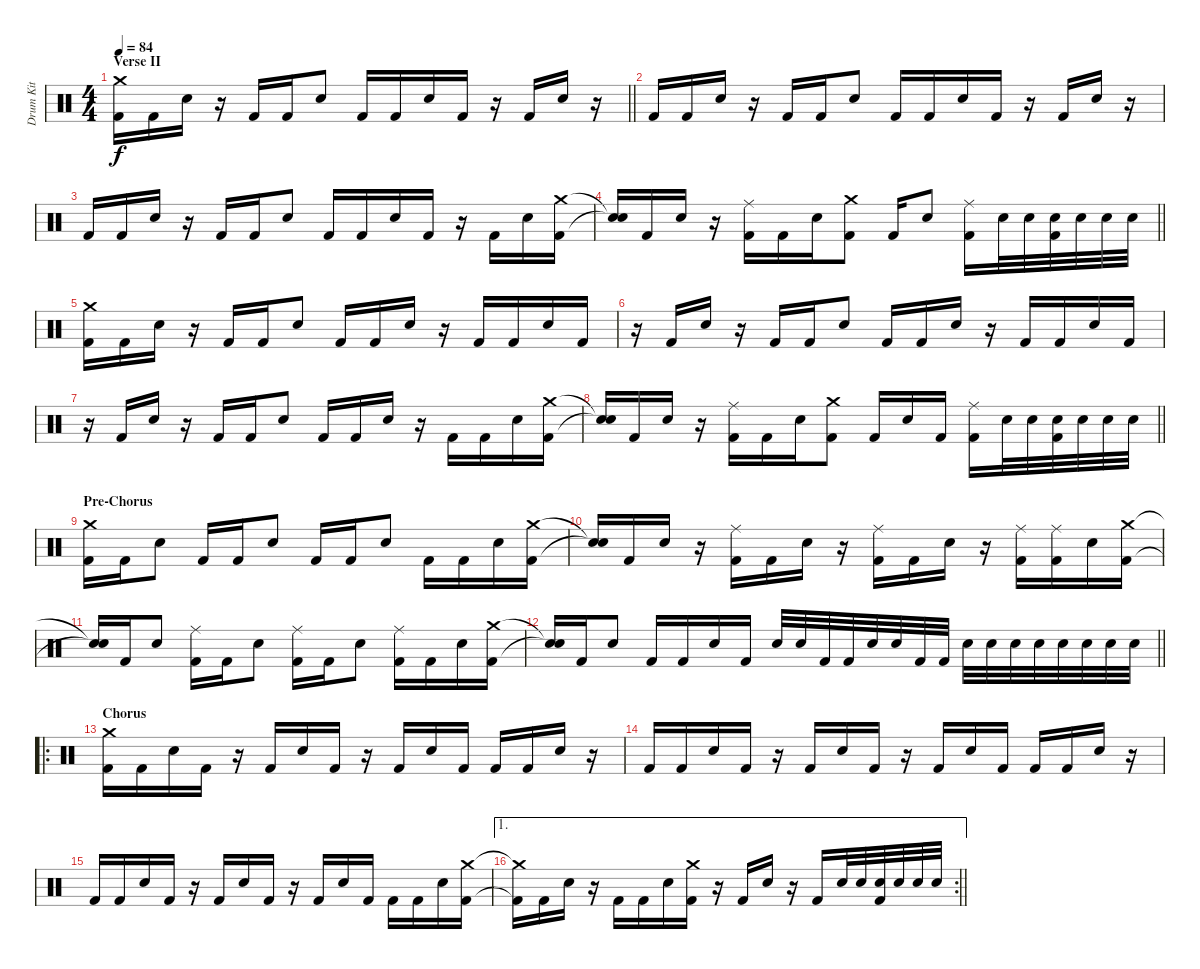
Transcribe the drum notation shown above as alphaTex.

\track ("Drum Kit" "Drum Kit") {instrument percussion}
\staff {score}
\articulation defaults
\ts (4 4)
\section ("" "Verse II")
\tempo 84
\clef neutral
\barLineRight lightlight
\ks c
("Crash medium (hit)" "Kick (hit) 2").16{dy f} "Kick (hit) 2".16 "Electric Snare (hit)".16 r.16 "Kick (hit) 2".16 "Kick (hit) 2".16 "Electric Snare (hit)".8 "Kick (hit) 2".16 "Kick (hit) 2".16 "Electric Snare (hit)".16 "Kick (hit) 2".16 r.16 "Kick (hit) 2".16 "Electric Snare (hit)".16 r.16 |
"Kick (hit) 2".16 "Kick (hit) 2".16 "Electric Snare (hit)".16 r.16 "Kick (hit) 2".16 "Kick (hit) 2".16 "Electric Snare (hit)".8 "Kick (hit) 2".16 "Kick (hit) 2".16 "Electric Snare (hit)".16 "Kick (hit) 2".16 r.16 "Kick (hit) 2".16 "Electric Snare (hit)".16 r.16 |
"Kick (hit) 2".16 "Kick (hit) 2".16 "Electric Snare (hit)".16 r.16 "Kick (hit) 2".16 "Kick (hit) 2".16 "Electric Snare (hit)".8 "Kick (hit) 2".16 "Kick (hit) 2".16 "Electric Snare (hit)".16 "Kick (hit) 2".16 r.16 "Kick (hit) 2".16 "Electric Snare (hit)".16 ("Crash medium (hit)" "Kick (hit) 2").16 |
\barLineRight lightlight
("Snare (hit)"{t} "Snare (hit)"{t}).16 "Kick (hit) 2".16 "Electric Snare (hit)".16 r.16 ("Ride (middle)" "Kick (hit) 2").16 "Kick (hit) 2".16 "Electric Snare (hit)".16 ("Crash medium (hit)" "Kick (hit) 2").8 "Kick (hit) 2".16 "Electric Snare (hit)".8 ("Ride (middle)" "Kick (hit) 2").16 "Electric Snare (hit)".32 "Electric Snare (hit)".32 ("Electric Snare (hit)" "Kick (hit) 2").32 "Electric Snare (hit)".32 "Electric Snare (hit)".32 "Electric Snare (hit)".32 |
("Crash medium (hit)" "Kick (hit) 2").16 "Kick (hit) 2".16 "Electric Snare (hit)".16 r.16 "Kick (hit) 2".16 "Kick (hit) 2".16 "Electric Snare (hit)".8 "Kick (hit) 2".16 "Kick (hit) 2".16 "Electric Snare (hit)".16 r.16 "Kick (hit) 2".16 "Kick (hit) 2".16 "Electric Snare (hit)".16 "Kick (hit) 2".16 |
r.16 "Kick (hit) 2".16 "Electric Snare (hit)".16 r.16 "Kick (hit) 2".16 "Kick (hit) 2".16 "Electric Snare (hit)".8 "Kick (hit) 2".16 "Kick (hit) 2".16 "Electric Snare (hit)".16 r.16 "Kick (hit) 2".16 "Kick (hit) 2".16 "Electric Snare (hit)".16 "Kick (hit) 2".16 |
r.16 "Kick (hit) 2".16 "Electric Snare (hit)".16 r.16 "Kick (hit) 2".16 "Kick (hit) 2".16 "Electric Snare (hit)".8 "Kick (hit) 2".16 "Kick (hit) 2".16 "Electric Snare (hit)".16 r.16 "Kick (hit) 2".16 "Kick (hit) 2".16 "Electric Snare (hit)".16 ("Crash medium (hit)" "Kick (hit) 2").16 |
\barLineRight lightlight
("Snare (hit)"{t} "Snare (hit)"{t}).16 "Kick (hit) 2".16 "Electric Snare (hit)".16 r.16 ("Ride (middle)" "Kick (hit) 2").16 "Kick (hit) 2".16 "Electric Snare (hit)".16 ("Crash medium (hit)" "Kick (hit) 2").8 "Kick (hit) 2".16 "Electric Snare (hit)".16 "Kick (hit) 2".16 ("Ride (middle)" "Kick (hit) 2").16 "Electric Snare (hit)".32 "Electric Snare (hit)".32 ("Electric Snare (hit)" "Kick (hit) 2").32 "Electric Snare (hit)".32 "Electric Snare (hit)".32 "Electric Snare (hit)".32 |
\section ("" "Pre-Chorus")
("Crash medium (hit)" "Kick (hit) 2").16 "Kick (hit) 2".16 "Electric Snare (hit)".8 "Kick (hit) 2".16 "Kick (hit) 2".16 "Electric Snare (hit)".8 "Kick (hit) 2".16 "Kick (hit) 2".16 "Electric Snare (hit)".8 "Kick (hit) 2".16 "Kick (hit) 2".16 "Electric Snare (hit)".16 ("Crash medium (hit)" "Kick (hit) 2").16 |
("Snare (hit)"{t} "Snare (hit)"{t}).16 "Kick (hit) 2".16 "Electric Snare (hit)".16 r.16 ("Ride (middle)" "Kick (hit) 2").16 "Kick (hit) 2".16 "Electric Snare (hit)".16 r.16 ("Ride (middle)" "Kick (hit) 2").16 "Kick (hit) 2".16 "Electric Snare (hit)".16 r.16 ("Ride (middle)" "Kick (hit) 2").16 ("Ride (middle)" "Kick (hit) 2").16 "Electric Snare (hit)".16 ("Crash medium (hit)" "Kick (hit) 2").16 |
("Snare (hit)"{t} "Snare (hit)"{t}).16 "Kick (hit) 2".16 "Electric Snare (hit)".8 ("Ride (middle)" "Kick (hit) 2").16 "Kick (hit) 2".16 "Electric Snare (hit)".8 ("Ride (middle)" "Kick (hit) 2").16 "Kick (hit) 2".16 "Electric Snare (hit)".8 ("Ride (middle)" "Kick (hit) 2").16 "Kick (hit) 2".16 "Electric Snare (hit)".16 ("Crash medium (hit)" "Kick (hit) 2").16 |
\barLineRight lightlight
("Snare (hit)"{t} "Snare (hit)"{t}).16 "Kick (hit) 2".16 "Electric Snare (hit)".8 "Kick (hit) 2".16 "Kick (hit) 2".16 "Electric Snare (hit)".16 "Kick (hit) 2".16 "Electric Snare (hit)".32 "Electric Snare (hit)".32 "Kick (hit) 2".32 "Kick (hit) 2".32 "Electric Snare (hit)".32 "Electric Snare (hit)".32 "Kick (hit) 2".32 "Kick (hit) 2".32 "Electric Snare (hit)".32 "Electric Snare (hit)".32 "Electric Snare (hit)".32 "Electric Snare (hit)".32 "Electric Snare (hit)".32 "Electric Snare (hit)".32 "Electric Snare (hit)".32 "Electric Snare (hit)".32 |
\ro
\section ("" "Chorus")
("Crash medium (hit)" "Kick (hit) 2").16 "Kick (hit) 2".16 "Electric Snare (hit)".16 "Kick (hit) 2".16 r.16 "Kick (hit) 2".16 "Electric Snare (hit)".16 "Kick (hit) 2".16 r.16 "Kick (hit) 2".16 "Electric Snare (hit)".16 "Kick (hit) 2".16 "Kick (hit) 2".16 "Kick (hit) 2".16 "Electric Snare (hit)".16 r.16 |
"Kick (hit) 2".16 "Kick (hit) 2".16 "Electric Snare (hit)".16 "Kick (hit) 2".16 r.16 "Kick (hit) 2".16 "Electric Snare (hit)".16 "Kick (hit) 2".16 r.16 "Kick (hit) 2".16 "Electric Snare (hit)".16 "Kick (hit) 2".16 "Kick (hit) 2".16 "Kick (hit) 2".16 "Electric Snare (hit)".16 r.16 |
"Kick (hit) 2".16 "Kick (hit) 2".16 "Electric Snare (hit)".16 "Kick (hit) 2".16 r.16 "Kick (hit) 2".16 "Electric Snare (hit)".16 "Kick (hit) 2".16 r.16 "Kick (hit) 2".16 "Electric Snare (hit)".16 "Kick (hit) 2".16 "Kick (hit) 2".16 "Kick (hit) 2".16 "Electric Snare (hit)".16 ("Crash medium (hit)" "Kick (hit) 2").16 |
\ae 1
\rc 2
\barLineRight lightlight
("Crash medium (hit)"{t} "Kick (hit) 2"{t}).16 "Kick (hit) 2".16 "Electric Snare (hit)".16 r.16 "Kick (hit) 2".16 "Kick (hit) 2".16 "Electric Snare (hit)".16 ("Crash medium (hit)" "Kick (hit) 2").16 r.16 "Kick (hit) 2".16 "Electric Snare (hit)".16 r.16 "Kick (hit) 2".16 "Electric Snare (hit)".32 "Electric Snare (hit)".32 ("Electric Snare (hit)" "Kick (hit) 2").32 "Electric Snare (hit)".32 "Electric Snare (hit)".32 "Electric Snare (hit)".32
